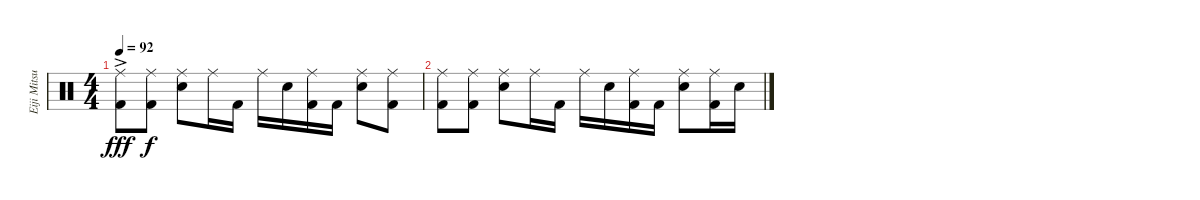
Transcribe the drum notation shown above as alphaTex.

\track ("Eiji Mitsuzono " "Eiji Mitsu") {instrument percussion}
\staff {score}
\articulation defaults
\ts (4 4)
\tempo 92
\clef neutral
\ks c
("Ride (middle)"{ac} "Kick (hit) 2").8{dy fff} ("Ride (middle)" "Kick (hit) 2").8{dy f} ("Ride (middle)" "Snare (hit) 2").8 "Ride (middle)".16 "Kick (hit) 2".16 "Ride (middle)".16 "Snare (hit) 2".16 ("Ride (middle)" "Kick (hit) 2").16 "Kick (hit) 2".16 ("Ride (middle)" "Snare (hit) 2").8 ("Ride (middle)" "Kick (hit) 2").8 |
("Ride (middle)" "Kick (hit) 2").8 ("Ride (middle)" "Kick (hit) 2").8 ("Ride (middle)" "Snare (hit) 2").8 "Ride (middle)".16 "Kick (hit) 2".16 "Ride (middle)".16 "Snare (hit) 2".16 ("Ride (middle)" "Kick (hit) 2").16 "Kick (hit) 2".16 ("Ride (middle)" "Snare (hit) 2").8 ("Ride (middle)" "Kick (hit) 2").16 "Snare (hit) 2".16
